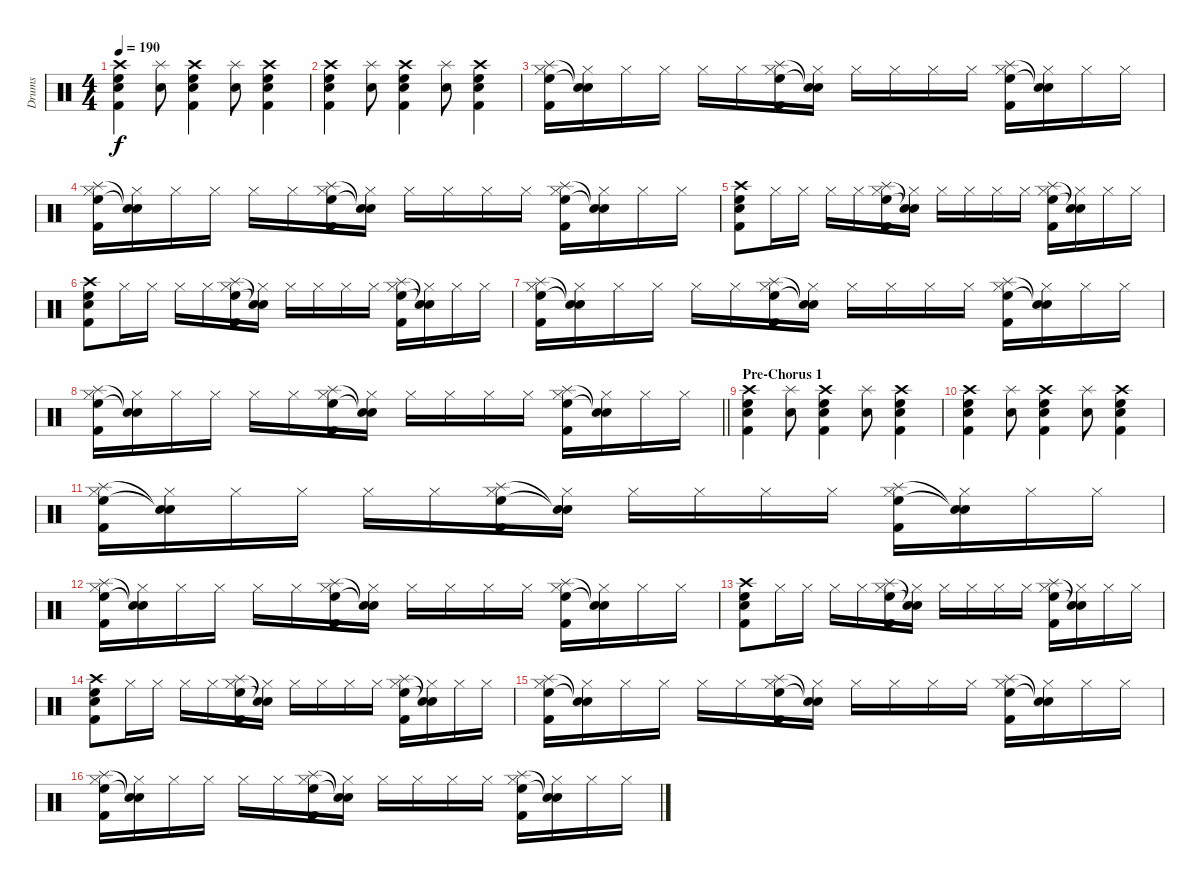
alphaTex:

\track ("Drums" "Drums") {instrument percussion}
\staff {score}
\articulation defaults
\ts (4 4)
\tempo 190
\clef neutral
\ks c
("Crash high (hit)" "High Floor Tom (hit)" "Snare (hit) 2" "Kick (hit) 2").4{dy f} ("Splash (hit)" "Electric Snare (hit)").8 ("Crash high (hit)" "High Floor Tom (hit)" "Snare (hit) 2" "Kick (hit) 2").4 ("Splash (hit)" "Electric Snare (hit)").8 ("Crash high (hit)" "High Floor Tom (hit)" "Snare (hit) 2" "Kick (hit) 2").4 |
("Crash high (hit)" "High Floor Tom (hit)" "Snare (hit) 2" "Kick (hit) 2").4 ("Splash (hit)" "Electric Snare (hit)").8 ("Crash high (hit)" "High Floor Tom (hit)" "Snare (hit) 2" "Kick (hit) 2").4 ("Splash (hit)" "Electric Snare (hit)").8 ("Crash high (hit)" "High Floor Tom (hit)" "Snare (hit) 2" "Kick (hit) 2").4 |
("Hi-Hat (closed)" "Splash (hit)" "High Floor Tom (hit)" "Kick (hit) 2").16 ("Hi-Hat (closed)" "Snare (hit)"{t} "Snare (hit)"{t}).16 "Hi-Hat (closed)".16 "Hi-Hat (closed)".16 "Hi-Hat (closed)".16 "Hi-Hat (closed)".16 ("Hi-Hat (closed)" "Splash (hit)" "High Floor Tom (hit)" "Kick (hit) 2").16 ("Hi-Hat (closed)" "Snare (hit)"{t} "Snare (hit)"{t}).16 "Hi-Hat (closed)".16 "Hi-Hat (closed)".16 "Hi-Hat (closed)".16 "Hi-Hat (closed)".16 ("Hi-Hat (closed)" "Splash (hit)" "High Floor Tom (hit)" "Kick (hit) 2").16 ("Hi-Hat (closed)" "Snare (hit)"{t} "Snare (hit)"{t}).16 "Hi-Hat (closed)".16 "Hi-Hat (closed)".16 |
("Hi-Hat (closed)" "Splash (hit)" "High Floor Tom (hit)" "Kick (hit) 2").16 ("Hi-Hat (closed)" "Snare (hit)"{t} "Snare (hit)"{t}).16 "Hi-Hat (closed)".16 "Hi-Hat (closed)".16 "Hi-Hat (closed)".16 "Hi-Hat (closed)".16 ("Hi-Hat (closed)" "Splash (hit)" "High Floor Tom (hit)" "Kick (hit) 2").16 ("Hi-Hat (closed)" "Snare (hit)"{t} "Snare (hit)"{t}).16 "Hi-Hat (closed)".16 "Hi-Hat (closed)".16 "Hi-Hat (closed)".16 "Hi-Hat (closed)".16 ("Hi-Hat (closed)" "Splash (hit)" "High Floor Tom (hit)" "Kick (hit) 2").16 ("Hi-Hat (closed)" "Snare (hit)"{t} "Snare (hit)"{t}).16 "Hi-Hat (closed)".16 "Hi-Hat (closed)".16 |
("Crash high (hit)" "High Floor Tom (hit)" "Snare (hit) 2" "Kick (hit) 2").8 "Hi-Hat (closed)".16 "Hi-Hat (closed)".16 "Hi-Hat (closed)".16 "Hi-Hat (closed)".16 ("Hi-Hat (closed)" "Splash (hit)" "High Floor Tom (hit)" "Kick (hit) 2").16 ("Hi-Hat (closed)" "Snare (hit)"{t} "Snare (hit)"{t}).16 "Hi-Hat (closed)".16 "Hi-Hat (closed)".16 "Hi-Hat (closed)".16 "Hi-Hat (closed)".16 ("Hi-Hat (closed)" "Splash (hit)" "High Floor Tom (hit)" "Kick (hit) 2").16 ("Hi-Hat (closed)" "Snare (hit)"{t} "Snare (hit)"{t}).16 "Hi-Hat (closed)".16 "Hi-Hat (closed)".16 |
("Crash high (hit)" "High Floor Tom (hit)" "Snare (hit) 2" "Kick (hit) 2").8 "Hi-Hat (closed)".16 "Hi-Hat (closed)".16 "Hi-Hat (closed)".16 "Hi-Hat (closed)".16 ("Hi-Hat (closed)" "Splash (hit)" "High Floor Tom (hit)" "Kick (hit) 2").16 ("Hi-Hat (closed)" "Snare (hit)"{t} "Snare (hit)"{t}).16 "Hi-Hat (closed)".16 "Hi-Hat (closed)".16 "Hi-Hat (closed)".16 "Hi-Hat (closed)".16 ("Hi-Hat (closed)" "Splash (hit)" "High Floor Tom (hit)" "Kick (hit) 2").16 ("Hi-Hat (closed)" "Snare (hit)"{t} "Snare (hit)"{t}).16 "Hi-Hat (closed)".16 "Hi-Hat (closed)".16 |
("Hi-Hat (closed)" "Splash (hit)" "High Floor Tom (hit)" "Kick (hit) 2").16 ("Hi-Hat (closed)" "Snare (hit)"{t} "Snare (hit)"{t}).16 "Hi-Hat (closed)".16 "Hi-Hat (closed)".16 "Hi-Hat (closed)".16 "Hi-Hat (closed)".16 ("Hi-Hat (closed)" "Splash (hit)" "High Floor Tom (hit)" "Kick (hit) 2").16 ("Hi-Hat (closed)" "Snare (hit)"{t} "Snare (hit)"{t}).16 "Hi-Hat (closed)".16 "Hi-Hat (closed)".16 "Hi-Hat (closed)".16 "Hi-Hat (closed)".16 ("Hi-Hat (closed)" "Splash (hit)" "High Floor Tom (hit)" "Kick (hit) 2").16 ("Hi-Hat (closed)" "Snare (hit)"{t} "Snare (hit)"{t}).16 "Hi-Hat (closed)".16 "Hi-Hat (closed)".16 |
\barLineRight lightlight
("Hi-Hat (closed)" "Splash (hit)" "High Floor Tom (hit)" "Kick (hit) 2").16 ("Hi-Hat (closed)" "Snare (hit)"{t} "Snare (hit)"{t}).16 "Hi-Hat (closed)".16 "Hi-Hat (closed)".16 "Hi-Hat (closed)".16 "Hi-Hat (closed)".16 ("Hi-Hat (closed)" "Splash (hit)" "High Floor Tom (hit)" "Kick (hit) 2").16 ("Hi-Hat (closed)" "Snare (hit)"{t} "Snare (hit)"{t}).16 "Hi-Hat (closed)".16 "Hi-Hat (closed)".16 "Hi-Hat (closed)".16 "Hi-Hat (closed)".16 ("Hi-Hat (closed)" "Splash (hit)" "High Floor Tom (hit)" "Kick (hit) 2").16 ("Hi-Hat (closed)" "Snare (hit)"{t} "Snare (hit)"{t}).16 "Hi-Hat (closed)".16 "Hi-Hat (closed)".16 |
\section ("" "Pre-Chorus 1")
("Crash high (hit)" "High Floor Tom (hit)" "Snare (hit) 2" "Kick (hit) 2").4 ("Splash (hit)" "Electric Snare (hit)").8 ("Crash high (hit)" "High Floor Tom (hit)" "Snare (hit) 2" "Kick (hit) 2").4 ("Splash (hit)" "Electric Snare (hit)").8 ("Crash high (hit)" "High Floor Tom (hit)" "Snare (hit) 2" "Kick (hit) 2").4 |
("Crash high (hit)" "High Floor Tom (hit)" "Snare (hit) 2" "Kick (hit) 2").4 ("Splash (hit)" "Electric Snare (hit)").8 ("Crash high (hit)" "High Floor Tom (hit)" "Snare (hit) 2" "Kick (hit) 2").4 ("Splash (hit)" "Electric Snare (hit)").8 ("Crash high (hit)" "High Floor Tom (hit)" "Snare (hit) 2" "Kick (hit) 2").4 |
("Hi-Hat (closed)" "Splash (hit)" "High Floor Tom (hit)" "Kick (hit) 2").16 ("Hi-Hat (closed)" "Snare (hit)"{t} "Snare (hit)"{t}).16 "Hi-Hat (closed)".16 "Hi-Hat (closed)".16 "Hi-Hat (closed)".16 "Hi-Hat (closed)".16 ("Hi-Hat (closed)" "Splash (hit)" "High Floor Tom (hit)" "Kick (hit) 2").16 ("Hi-Hat (closed)" "Snare (hit)"{t} "Snare (hit)"{t}).16 "Hi-Hat (closed)".16 "Hi-Hat (closed)".16 "Hi-Hat (closed)".16 "Hi-Hat (closed)".16 ("Hi-Hat (closed)" "Splash (hit)" "High Floor Tom (hit)" "Kick (hit) 2").16 ("Hi-Hat (closed)" "Snare (hit)"{t} "Snare (hit)"{t}).16 "Hi-Hat (closed)".16 "Hi-Hat (closed)".16 |
("Hi-Hat (closed)" "Splash (hit)" "High Floor Tom (hit)" "Kick (hit) 2").16 ("Hi-Hat (closed)" "Snare (hit)"{t} "Snare (hit)"{t}).16 "Hi-Hat (closed)".16 "Hi-Hat (closed)".16 "Hi-Hat (closed)".16 "Hi-Hat (closed)".16 ("Hi-Hat (closed)" "Splash (hit)" "High Floor Tom (hit)" "Kick (hit) 2").16 ("Hi-Hat (closed)" "Snare (hit)"{t} "Snare (hit)"{t}).16 "Hi-Hat (closed)".16 "Hi-Hat (closed)".16 "Hi-Hat (closed)".16 "Hi-Hat (closed)".16 ("Hi-Hat (closed)" "Splash (hit)" "High Floor Tom (hit)" "Kick (hit) 2").16 ("Hi-Hat (closed)" "Snare (hit)"{t} "Snare (hit)"{t}).16 "Hi-Hat (closed)".16 "Hi-Hat (closed)".16 |
("Crash high (hit)" "High Floor Tom (hit)" "Snare (hit) 2" "Kick (hit) 2").8 "Hi-Hat (closed)".16 "Hi-Hat (closed)".16 "Hi-Hat (closed)".16 "Hi-Hat (closed)".16 ("Hi-Hat (closed)" "Splash (hit)" "High Floor Tom (hit)" "Kick (hit) 2").16 ("Hi-Hat (closed)" "Snare (hit)"{t} "Snare (hit)"{t}).16 "Hi-Hat (closed)".16 "Hi-Hat (closed)".16 "Hi-Hat (closed)".16 "Hi-Hat (closed)".16 ("Hi-Hat (closed)" "Splash (hit)" "High Floor Tom (hit)" "Kick (hit) 2").16 ("Hi-Hat (closed)" "Snare (hit)"{t} "Snare (hit)"{t}).16 "Hi-Hat (closed)".16 "Hi-Hat (closed)".16 |
("Crash high (hit)" "High Floor Tom (hit)" "Snare (hit) 2" "Kick (hit) 2").8 "Hi-Hat (closed)".16 "Hi-Hat (closed)".16 "Hi-Hat (closed)".16 "Hi-Hat (closed)".16 ("Hi-Hat (closed)" "Splash (hit)" "High Floor Tom (hit)" "Kick (hit) 2").16 ("Hi-Hat (closed)" "Snare (hit)"{t} "Snare (hit)"{t}).16 "Hi-Hat (closed)".16 "Hi-Hat (closed)".16 "Hi-Hat (closed)".16 "Hi-Hat (closed)".16 ("Hi-Hat (closed)" "Splash (hit)" "High Floor Tom (hit)" "Kick (hit) 2").16 ("Hi-Hat (closed)" "Snare (hit)"{t} "Snare (hit)"{t}).16 "Hi-Hat (closed)".16 "Hi-Hat (closed)".16 |
("Hi-Hat (closed)" "Splash (hit)" "High Floor Tom (hit)" "Kick (hit) 2").16 ("Hi-Hat (closed)" "Snare (hit)"{t} "Snare (hit)"{t}).16 "Hi-Hat (closed)".16 "Hi-Hat (closed)".16 "Hi-Hat (closed)".16 "Hi-Hat (closed)".16 ("Hi-Hat (closed)" "Splash (hit)" "High Floor Tom (hit)" "Kick (hit) 2").16 ("Hi-Hat (closed)" "Snare (hit)"{t} "Snare (hit)"{t}).16 "Hi-Hat (closed)".16 "Hi-Hat (closed)".16 "Hi-Hat (closed)".16 "Hi-Hat (closed)".16 ("Hi-Hat (closed)" "Splash (hit)" "High Floor Tom (hit)" "Kick (hit) 2").16 ("Hi-Hat (closed)" "Snare (hit)"{t} "Snare (hit)"{t}).16 "Hi-Hat (closed)".16 "Hi-Hat (closed)".16 |
("Hi-Hat (closed)" "Splash (hit)" "High Floor Tom (hit)" "Kick (hit) 2").16 ("Hi-Hat (closed)" "Snare (hit)"{t} "Snare (hit)"{t}).16 "Hi-Hat (closed)".16 "Hi-Hat (closed)".16 "Hi-Hat (closed)".16 "Hi-Hat (closed)".16 ("Hi-Hat (closed)" "Splash (hit)" "High Floor Tom (hit)" "Kick (hit) 2").16 ("Hi-Hat (closed)" "Snare (hit)"{t} "Snare (hit)"{t}).16 "Hi-Hat (closed)".16 "Hi-Hat (closed)".16 "Hi-Hat (closed)".16 "Hi-Hat (closed)".16 ("Hi-Hat (closed)" "Splash (hit)" "High Floor Tom (hit)" "Kick (hit) 2").16 ("Hi-Hat (closed)" "Snare (hit)"{t} "Snare (hit)"{t}).16 "Hi-Hat (closed)".16 "Hi-Hat (closed)".16
